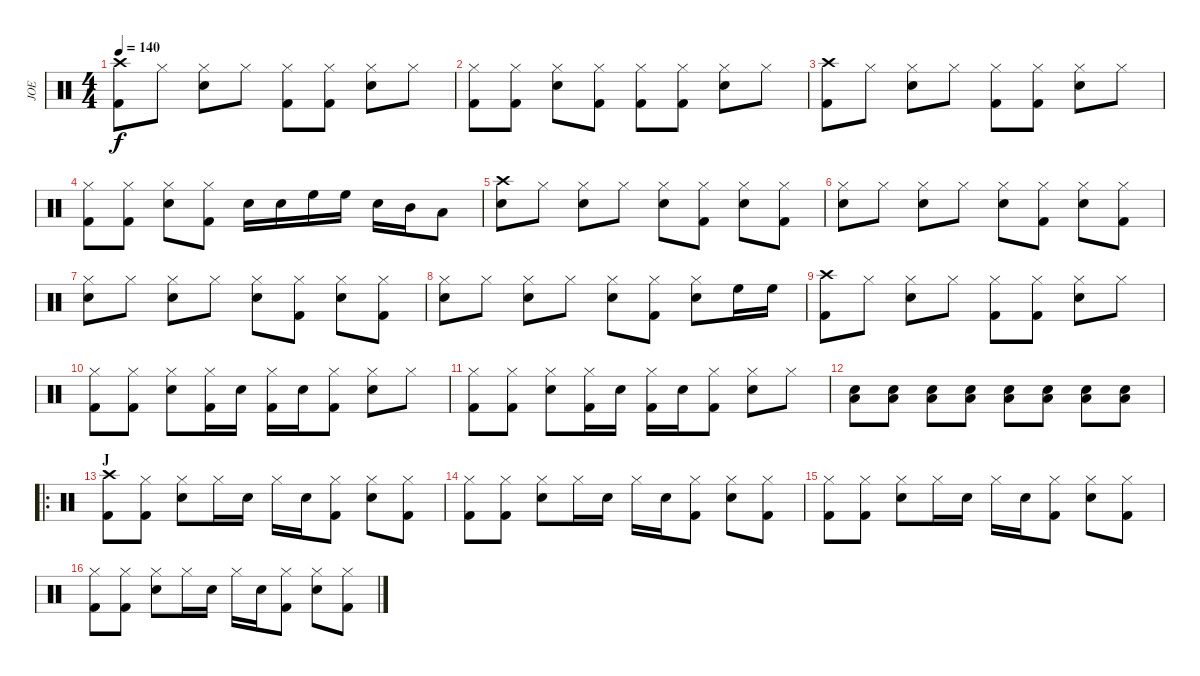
\track ("JOE" "JOE") {instrument percussion}
\staff {score}
\articulation defaults
\ts (4 4)
\tempo 140
\clef neutral
\ks c
("Crash high (hit)" "Kick (hit) 2").8{dy f} "Hi-Hat (closed)".8 ("Hi-Hat (closed)" "Snare (hit) 2").8 "Hi-Hat (closed)".8 ("Hi-Hat (closed)" "Kick (hit) 2").8 ("Hi-Hat (closed)" "Kick (hit) 2").8 ("Hi-Hat (closed)" "Snare (hit) 2").8 "Hi-Hat (closed)".8 |
("Hi-Hat (closed)" "Kick (hit) 2").8 ("Hi-Hat (closed)" "Kick (hit) 2").8 ("Hi-Hat (closed)" "Snare (hit) 2").8 ("Hi-Hat (closed)" "Kick (hit) 2").8 ("Hi-Hat (closed)" "Kick (hit) 2").8 ("Hi-Hat (closed)" "Kick (hit) 2").8 ("Hi-Hat (closed)" "Snare (hit) 2").8 "Hi-Hat (closed)".8 |
("Crash high (hit)" "Kick (hit) 2").8 "Hi-Hat (closed)".8 ("Hi-Hat (closed)" "Snare (hit) 2").8 "Hi-Hat (closed)".8 ("Hi-Hat (closed)" "Kick (hit) 2").8 ("Hi-Hat (closed)" "Kick (hit) 2").8 ("Hi-Hat (closed)" "Snare (hit) 2").8 "Hi-Hat (closed)".8 |
("Hi-Hat (closed)" "Kick (hit) 2").8 ("Hi-Hat (closed)" "Kick (hit) 2").8 ("Hi-Hat (closed)" "Snare (hit) 2").8 ("Hi-Hat (closed)" "Kick (hit) 2").8 "Snare (hit) 2".16 "Snare (hit) 2".16 "High Floor Tom (hit)".16 "High Floor Tom (hit)".16 "Snare (hit) 2".16 "Mid Tom (hit)".16 "Low Tom (hit)".8 |
("Crash high (hit)" "Snare (hit) 2").8 "Hi-Hat (closed)".8 ("Hi-Hat (closed)" "Snare (hit) 2").8 "Hi-Hat (closed)".8 ("Hi-Hat (closed)" "Snare (hit) 2").8 ("Hi-Hat (closed)" "Kick (hit) 2").8 ("Hi-Hat (closed)" "Snare (hit) 2").8 ("Hi-Hat (closed)" "Kick (hit) 2").8 |
("Hi-Hat (closed)" "Snare (hit) 2").8 "Hi-Hat (closed)".8 ("Hi-Hat (closed)" "Snare (hit) 2").8 "Hi-Hat (closed)".8 ("Hi-Hat (closed)" "Snare (hit) 2").8 ("Hi-Hat (closed)" "Kick (hit) 2").8 ("Hi-Hat (closed)" "Snare (hit) 2").8 ("Hi-Hat (closed)" "Kick (hit) 2").8 |
("Hi-Hat (closed)" "Snare (hit) 2").8 "Hi-Hat (closed)".8 ("Hi-Hat (closed)" "Snare (hit) 2").8 "Hi-Hat (closed)".8 ("Hi-Hat (closed)" "Snare (hit) 2").8 ("Hi-Hat (closed)" "Kick (hit) 2").8 ("Hi-Hat (closed)" "Snare (hit) 2").8 ("Hi-Hat (closed)" "Kick (hit) 2").8 |
("Hi-Hat (closed)" "Snare (hit) 2").8 "Hi-Hat (closed)".8 ("Hi-Hat (closed)" "Snare (hit) 2").8 "Hi-Hat (closed)".8 ("Hi-Hat (closed)" "Snare (hit) 2").8 ("Hi-Hat (closed)" "Kick (hit) 2").8 ("Hi-Hat (closed)" "Snare (hit) 2").8 "High Floor Tom (hit)".16 "High Floor Tom (hit)".16 |
("Crash high (hit)" "Kick (hit) 2").8 "Hi-Hat (closed)".8 ("Hi-Hat (closed)" "Snare (hit) 2").8 "Hi-Hat (closed)".8 ("Hi-Hat (closed)" "Kick (hit) 2").8 ("Hi-Hat (closed)" "Kick (hit) 2").8 ("Hi-Hat (closed)" "Snare (hit) 2").8 "Hi-Hat (closed)".8 |
("Hi-Hat (closed)" "Kick (hit) 2").8 ("Hi-Hat (closed)" "Kick (hit) 2").8 ("Hi-Hat (closed)" "Snare (hit) 2").8 ("Hi-Hat (closed)" "Kick (hit) 2").16 "Snare (hit) 2".16 ("Hi-Hat (closed)" "Kick (hit) 2").16 "Snare (hit) 2".16 ("Hi-Hat (closed)" "Kick (hit) 2").8 ("Hi-Hat (closed)" "Snare (hit) 2").8 "Hi-Hat (closed)".8 |
("Hi-Hat (closed)" "Kick (hit) 2").8 ("Hi-Hat (closed)" "Kick (hit) 2").8 ("Hi-Hat (closed)" "Snare (hit) 2").8 ("Hi-Hat (closed)" "Kick (hit) 2").16 "Snare (hit) 2".16 ("Hi-Hat (closed)" "Kick (hit) 2").16 "Snare (hit) 2".16 ("Hi-Hat (closed)" "Kick (hit) 2").8 ("Hi-Hat (closed)" "Snare (hit) 2").8 "Hi-Hat (closed)".8 |
("Snare (hit) 2" "Low Floor Tom (hit)").8 ("Snare (hit) 2" "Low Floor Tom (hit)").8 ("Snare (hit) 2" "Low Floor Tom (hit)").8 ("Snare (hit) 2" "Low Floor Tom (hit)").8 ("Snare (hit) 2" "Low Floor Tom (hit)").8 ("Snare (hit) 2" "Low Floor Tom (hit)").8 ("Snare (hit) 2" "Low Floor Tom (hit)").8 ("Snare (hit) 2" "Low Floor Tom (hit)").8 |
\ro
\section ("" "J")
("Crash high (hit)" "Kick (hit) 2").8 ("Hi-Hat (closed)" "Kick (hit) 2").8 ("Hi-Hat (closed)" "Snare (hit) 2").8 "Hi-Hat (closed)".16 "Snare (hit) 2".16 "Hi-Hat (closed)".16 "Snare (hit) 2".16 ("Hi-Hat (closed)" "Kick (hit) 2").8 ("Hi-Hat (closed)" "Snare (hit) 2").8 ("Hi-Hat (closed)" "Kick (hit) 2").8 |
("Hi-Hat (closed)" "Kick (hit) 2").8 ("Hi-Hat (closed)" "Kick (hit) 2").8 ("Hi-Hat (closed)" "Snare (hit) 2").8 "Hi-Hat (closed)".16 "Snare (hit) 2".16 "Hi-Hat (closed)".16 "Snare (hit) 2".16 ("Hi-Hat (closed)" "Kick (hit) 2").8 ("Hi-Hat (closed)" "Snare (hit) 2").8 ("Hi-Hat (closed)" "Kick (hit) 2").8 |
("Hi-Hat (closed)" "Kick (hit) 2").8 ("Hi-Hat (closed)" "Kick (hit) 2").8 ("Hi-Hat (closed)" "Snare (hit) 2").8 "Hi-Hat (closed)".16 "Snare (hit) 2".16 "Hi-Hat (closed)".16 "Snare (hit) 2".16 ("Hi-Hat (closed)" "Kick (hit) 2").8 ("Hi-Hat (closed)" "Snare (hit) 2").8 ("Hi-Hat (closed)" "Kick (hit) 2").8 |
("Hi-Hat (closed)" "Kick (hit) 2").8 ("Hi-Hat (closed)" "Kick (hit) 2").8 ("Hi-Hat (closed)" "Snare (hit) 2").8 "Hi-Hat (closed)".16 "Snare (hit) 2".16 "Hi-Hat (closed)".16 "Snare (hit) 2".16 ("Hi-Hat (closed)" "Kick (hit) 2").8 ("Hi-Hat (closed)" "Snare (hit) 2").8 ("Hi-Hat (closed)" "Kick (hit) 2").8
